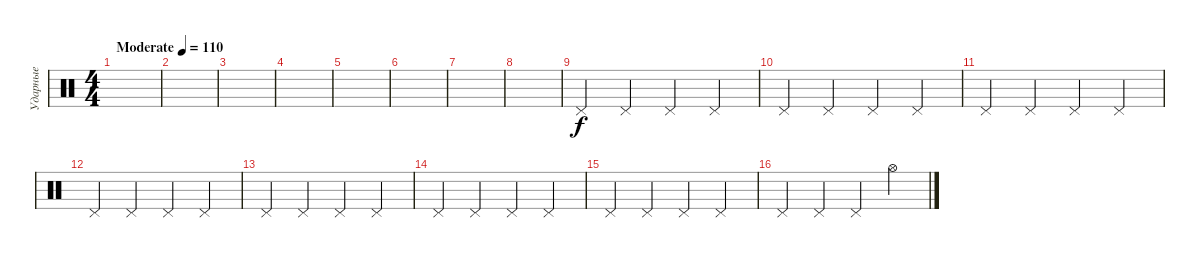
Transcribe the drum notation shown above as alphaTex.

\track ("Ударные" "Ударные") {solo instrument percussion}
\staff {score}
\articulation defaults
\ts (4 4)
\tempo (110 "Moderate")
\clef neutral
\ks c
|
|
|
|
|
|
|
|
"Pedal Hi-Hat (hit)".4 "Pedal Hi-Hat (hit)".4 "Pedal Hi-Hat (hit)".4 "Pedal Hi-Hat (hit)".4 |
"Pedal Hi-Hat (hit)".4 "Pedal Hi-Hat (hit)".4 "Pedal Hi-Hat (hit)".4 "Pedal Hi-Hat (hit)".4 |
"Pedal Hi-Hat (hit)".4 "Pedal Hi-Hat (hit)".4 "Pedal Hi-Hat (hit)".4 "Pedal Hi-Hat (hit)".4 |
"Pedal Hi-Hat (hit)".4 "Pedal Hi-Hat (hit)".4 "Pedal Hi-Hat (hit)".4 "Pedal Hi-Hat (hit)".4 |
"Pedal Hi-Hat (hit)".4 "Pedal Hi-Hat (hit)".4 "Pedal Hi-Hat (hit)".4 "Pedal Hi-Hat (hit)".4 |
"Pedal Hi-Hat (hit)".4 "Pedal Hi-Hat (hit)".4 "Pedal Hi-Hat (hit)".4 "Pedal Hi-Hat (hit)".4 |
"Pedal Hi-Hat (hit)".4 "Pedal Hi-Hat (hit)".4 "Pedal Hi-Hat (hit)".4 "Pedal Hi-Hat (hit)".4 |
"Pedal Hi-Hat (hit)".4 "Pedal Hi-Hat (hit)".4 "Pedal Hi-Hat (hit)".4 "Hi-Hat (open)".4
